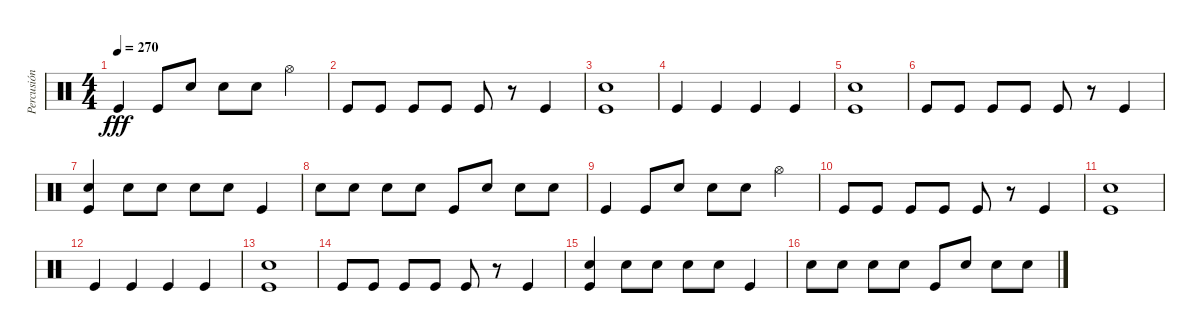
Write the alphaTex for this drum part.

\track ("Percusión" "Percusión") {instrument percussion}
\staff {score}
\articulation defaults
\ts (4 4)
\tempo 270
\clef neutral
\ks c "Kick (hit)".4{dy fff} "Kick (hit)".8 "Snare (hit) 2".8 "Snare (hit) 2".8 "Snare (hit) 2".8 "Hi-Hat (open)".4
|
"Kick (hit)".8 "Kick (hit)".8 "Kick (hit)".8 "Kick (hit)".8 "Kick (hit)".8 r.8 "Kick (hit)".4 |
("Snare (hit) 2" "Kick (hit)").1 |
"Kick (hit)".4 "Kick (hit)".4 "Kick (hit)".4 "Kick (hit)".4 |
("Snare (hit) 2" "Kick (hit)").1 |
"Kick (hit)".8 "Kick (hit)".8 "Kick (hit)".8 "Kick (hit)".8 "Kick (hit)".8 r.8 "Kick (hit)".4 |
("Snare (hit) 2" "Kick (hit)").4 "Snare (hit) 2".8 "Snare (hit) 2".8 "Snare (hit) 2".8 "Snare (hit) 2".8 "Kick (hit)".4 |
"Snare (hit) 2".8 "Snare (hit) 2".8 "Snare (hit) 2".8 "Snare (hit) 2".8 "Kick (hit)".8 "Snare (hit) 2".8 "Snare (hit) 2".8 "Snare (hit) 2".8 |
"Kick (hit)".4 "Kick (hit)".8 "Snare (hit) 2".8 "Snare (hit) 2".8 "Snare (hit) 2".8 "Hi-Hat (open)".4 |
"Kick (hit)".8 "Kick (hit)".8 "Kick (hit)".8 "Kick (hit)".8 "Kick (hit)".8 r.8 "Kick (hit)".4 |
("Snare (hit) 2" "Kick (hit)").1 |
"Kick (hit)".4 "Kick (hit)".4 "Kick (hit)".4 "Kick (hit)".4 |
("Snare (hit) 2" "Kick (hit)").1 |
"Kick (hit)".8 "Kick (hit)".8 "Kick (hit)".8 "Kick (hit)".8 "Kick (hit)".8 r.8 "Kick (hit)".4 |
("Snare (hit) 2" "Kick (hit)").4 "Snare (hit) 2".8 "Snare (hit) 2".8 "Snare (hit) 2".8 "Snare (hit) 2".8 "Kick (hit)".4 |
"Snare (hit) 2".8 "Snare (hit) 2".8 "Snare (hit) 2".8 "Snare (hit) 2".8 "Kick (hit)".8 "Snare (hit) 2".8 "Snare (hit) 2".8 "Snare (hit) 2".8
